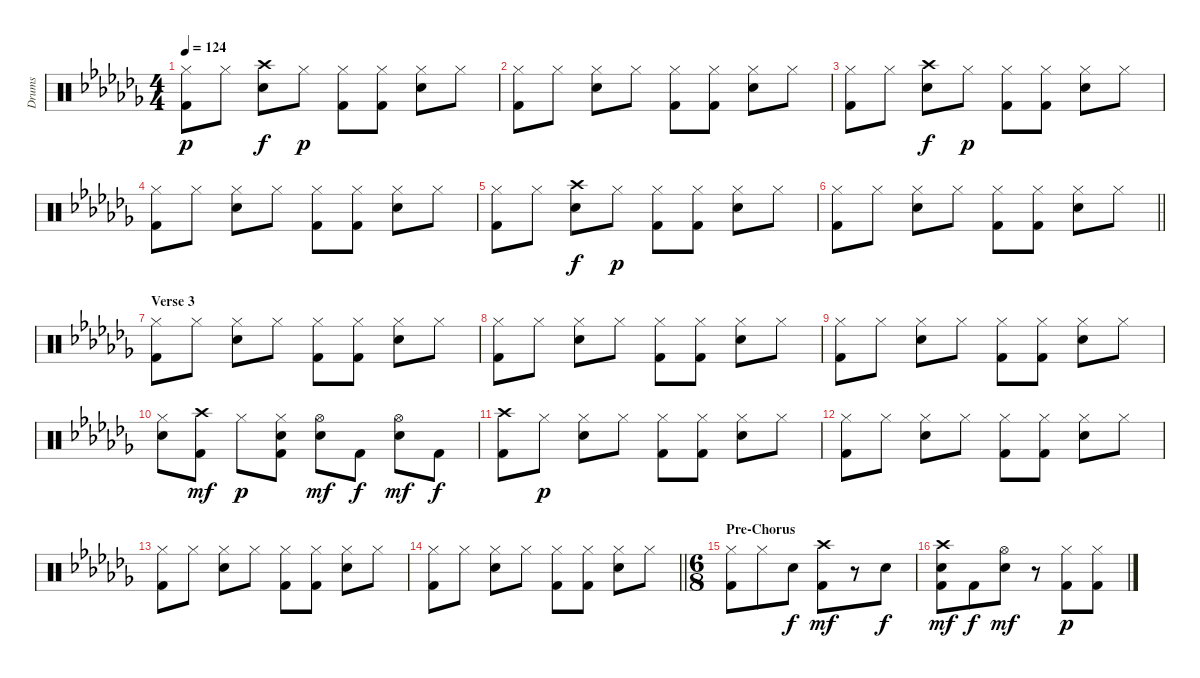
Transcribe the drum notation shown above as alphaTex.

\track ("Drums" "Drums") {instrument percussion}
\staff {score}
\articulation defaults
\ts (4 4)
\tempo 124
\clef neutral
\ks cb
("Hi-Hat (closed)" "Kick (hit) 2").8{dy p} "Hi-Hat (closed)".8 ("Crash high (hit)" "Electric Snare (hit)").8{dy f} "Hi-Hat (closed)".8{dy p} ("Hi-Hat (closed)" "Kick (hit) 2").8 ("Hi-Hat (closed)" "Kick (hit) 2").8 ("Hi-Hat (closed)" "Electric Snare (hit)").8 "Hi-Hat (closed)".8 |
("Hi-Hat (closed)" "Kick (hit) 2").8 "Hi-Hat (closed)".8 ("Hi-Hat (closed)" "Electric Snare (hit)").8 "Hi-Hat (closed)".8 ("Hi-Hat (closed)" "Kick (hit) 2").8 ("Hi-Hat (closed)" "Kick (hit) 2").8 ("Hi-Hat (closed)" "Electric Snare (hit)").8 "Hi-Hat (closed)".8 |
("Hi-Hat (closed)" "Kick (hit) 2").8 "Hi-Hat (closed)".8 ("Crash high (hit)" "Electric Snare (hit)").8{dy f} "Hi-Hat (closed)".8{dy p} ("Hi-Hat (closed)" "Kick (hit) 2").8 ("Hi-Hat (closed)" "Kick (hit) 2").8 ("Hi-Hat (closed)" "Electric Snare (hit)").8 "Hi-Hat (closed)".8 |
("Hi-Hat (closed)" "Kick (hit) 2").8 "Hi-Hat (closed)".8 ("Hi-Hat (closed)" "Electric Snare (hit)").8 "Hi-Hat (closed)".8 ("Hi-Hat (closed)" "Kick (hit) 2").8 ("Hi-Hat (closed)" "Kick (hit) 2").8 ("Hi-Hat (closed)" "Electric Snare (hit)").8 "Hi-Hat (closed)".8 |
("Hi-Hat (closed)" "Kick (hit) 2").8 "Hi-Hat (closed)".8 ("Crash high (hit)" "Electric Snare (hit)").8{dy f} "Hi-Hat (closed)".8{dy p} ("Hi-Hat (closed)" "Kick (hit) 2").8 ("Hi-Hat (closed)" "Kick (hit) 2").8 ("Hi-Hat (closed)" "Electric Snare (hit)").8 "Hi-Hat (closed)".8 |
\barLineRight lightlight
("Hi-Hat (closed)" "Kick (hit) 2").8 "Hi-Hat (closed)".8 ("Hi-Hat (closed)" "Electric Snare (hit)").8 "Hi-Hat (closed)".8 ("Hi-Hat (closed)" "Kick (hit) 2").8 ("Hi-Hat (closed)" "Kick (hit) 2").8 ("Hi-Hat (closed)" "Electric Snare (hit)").8 "Hi-Hat (closed)".8 |
\section ("" "Verse 3")
("Hi-Hat (closed)" "Kick (hit) 2").8 "Hi-Hat (closed)".8 ("Hi-Hat (closed)" "Electric Snare (hit)").8 "Hi-Hat (closed)".8 ("Hi-Hat (closed)" "Kick (hit) 2").8 ("Hi-Hat (closed)" "Kick (hit) 2").8 ("Hi-Hat (closed)" "Electric Snare (hit)").8 "Hi-Hat (closed)".8 |
("Hi-Hat (closed)" "Kick (hit) 2").8 "Hi-Hat (closed)".8 ("Hi-Hat (closed)" "Electric Snare (hit)").8 "Hi-Hat (closed)".8 ("Hi-Hat (closed)" "Kick (hit) 2").8 ("Hi-Hat (closed)" "Kick (hit) 2").8 ("Hi-Hat (closed)" "Electric Snare (hit)").8 "Hi-Hat (closed)".8 |
("Hi-Hat (closed)" "Kick (hit) 2").8 "Hi-Hat (closed)".8 ("Hi-Hat (closed)" "Electric Snare (hit)").8 "Hi-Hat (closed)".8 ("Hi-Hat (closed)" "Kick (hit) 2").8 ("Hi-Hat (closed)" "Kick (hit) 2").8 ("Hi-Hat (closed)" "Electric Snare (hit)").8 "Hi-Hat (closed)".8 |
("Hi-Hat (closed)" "Electric Snare (hit)").8 ("Crash high (hit)" "Kick (hit) 2").8{dy mf} "Hi-Hat (closed)".8{dy p} ("Hi-Hat (closed)" "Electric Snare (hit)" "Kick (hit) 2").8 ("Hi-Hat (open)" "Electric Snare (hit)").8{dy mf} "Kick (hit) 2".8{dy f} ("Hi-Hat (open)" "Electric Snare (hit)").8{dy mf} "Kick (hit) 2".8{dy f} |
("Crash high (hit)" "Kick (hit) 2").8 "Hi-Hat (closed)".8{dy p} ("Hi-Hat (closed)" "Electric Snare (hit)").8 "Hi-Hat (closed)".8 ("Hi-Hat (closed)" "Kick (hit) 2").8 ("Hi-Hat (closed)" "Kick (hit) 2").8 ("Hi-Hat (closed)" "Electric Snare (hit)").8 "Hi-Hat (closed)".8 |
("Hi-Hat (closed)" "Kick (hit) 2").8 "Hi-Hat (closed)".8 ("Hi-Hat (closed)" "Electric Snare (hit)").8 "Hi-Hat (closed)".8 ("Hi-Hat (closed)" "Kick (hit) 2").8 ("Hi-Hat (closed)" "Kick (hit) 2").8 ("Hi-Hat (closed)" "Electric Snare (hit)").8 "Hi-Hat (closed)".8 |
("Hi-Hat (closed)" "Kick (hit) 2").8 "Hi-Hat (closed)".8 ("Hi-Hat (closed)" "Electric Snare (hit)").8 "Hi-Hat (closed)".8 ("Hi-Hat (closed)" "Kick (hit) 2").8 ("Hi-Hat (closed)" "Kick (hit) 2").8 ("Hi-Hat (closed)" "Electric Snare (hit)").8 "Hi-Hat (closed)".8 |
\barLineRight lightlight
("Hi-Hat (closed)" "Kick (hit) 2").8 "Hi-Hat (closed)".8 ("Hi-Hat (closed)" "Electric Snare (hit)").8 "Hi-Hat (closed)".8 ("Hi-Hat (closed)" "Kick (hit) 2").8 ("Hi-Hat (closed)" "Kick (hit) 2").8 ("Hi-Hat (closed)" "Electric Snare (hit)").8 "Hi-Hat (closed)".8 |
\ts (6 8)
\section ("" "Pre-Chorus")
("Hi-Hat (closed)" "Kick (hit) 2").8 "Hi-Hat (closed)".8 "Electric Snare (hit)".8{dy f} ("Crash high (hit)" "Kick (hit) 2").8{dy mf} r.8 "Electric Snare (hit)".8{dy f} |
("Crash high (hit)" "Electric Snare (hit)" "Kick (hit) 2").8{dy mf} "Kick (hit) 2".8{dy f} ("Hi-Hat (open)" "Electric Snare (hit)").8{dy mf} r.8 ("Hi-Hat (closed)" "Kick (hit) 2").8{dy p} ("Hi-Hat (closed)" "Kick (hit) 2").8
